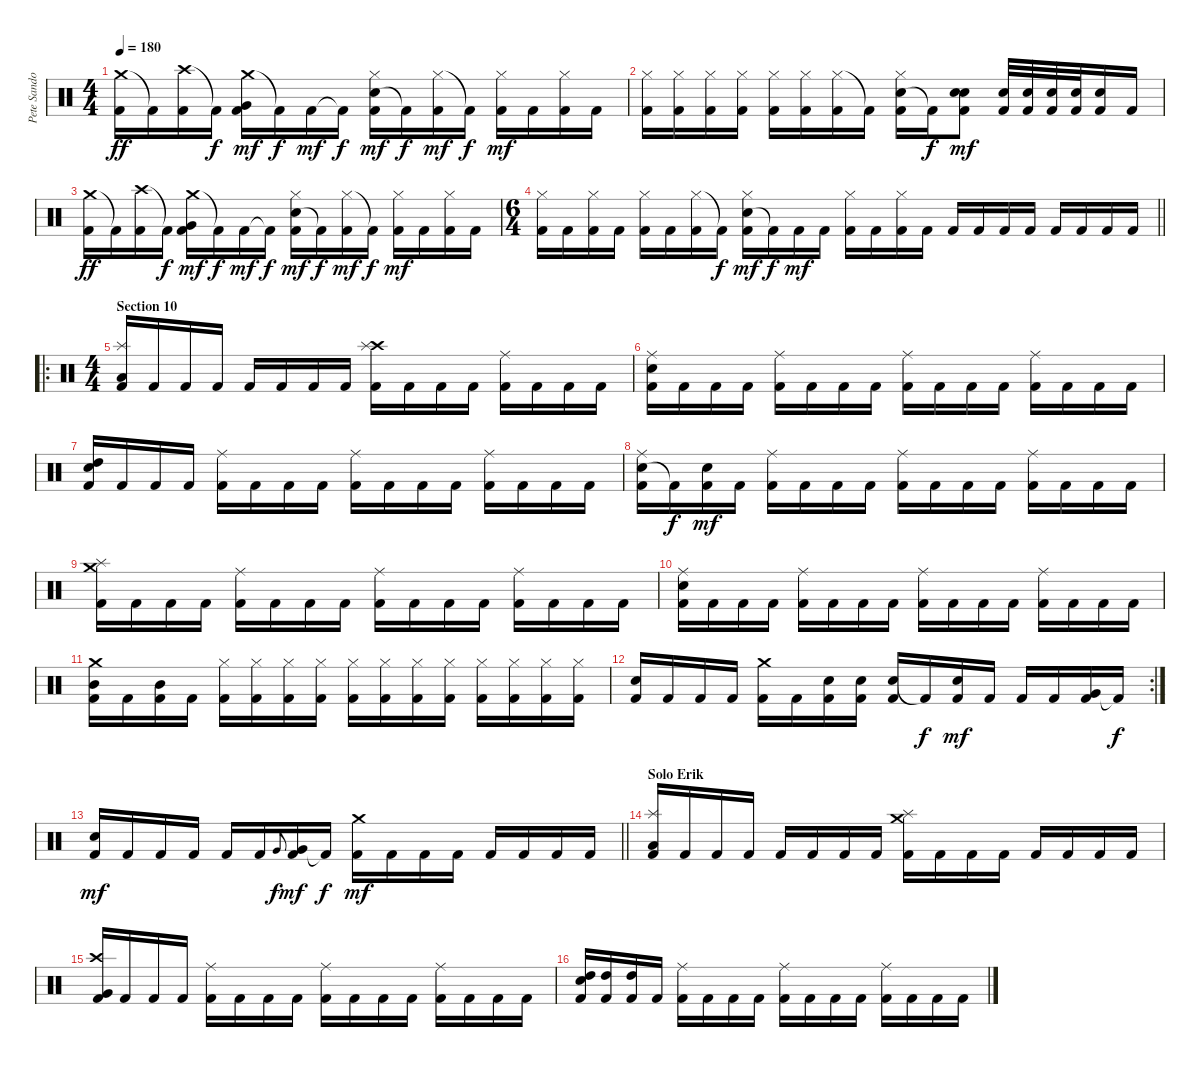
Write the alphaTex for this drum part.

\track ("Pete Sandoval" "Pete Sando") {instrument percussion}
\staff {score}
\articulation defaults
\ts (4 4)
\tempo 180
\clef neutral
\ks c
("Crash medium (hit)" "Kick (hit) 2").16{dy ff} "Kick (hit) 2"{t}.16 ("Crash high (hit)" "Kick (hit) 2").16 "Kick (hit) 2"{t}.16{dy f} ("Crash medium (hit)" "Very Low Tom (hit)" "Kick (hit) 2").16{dy mf} "Kick (hit) 2"{t}.16{dy f} "Kick (hit) 2".16{dy mf} "Kick (hit) 2"{t}.16{dy f} ("Snare (hit) 2" "Hi-Hat (closed)" "Kick (hit) 2").16{dy mf} "Kick (hit) 2"{t}.16{dy f} ("Hi-Hat (closed)" "Kick (hit) 2").16{dy mf} "Kick (hit) 2"{t}.16{dy f} ("Hi-Hat (closed)" "Kick (hit) 2").16{dy mf} "Kick (hit) 2".16 ("Hi-Hat (closed)" "Kick (hit) 2").16 "Kick (hit) 2".16 |
("Hi-Hat (closed)" "Kick (hit) 2").16 ("Hi-Hat (closed)" "Kick (hit) 2").16 ("Hi-Hat (closed)" "Kick (hit) 2").16 ("Hi-Hat (closed)" "Kick (hit) 2").16 ("Hi-Hat (closed)" "Kick (hit) 2").16 ("Hi-Hat (closed)" "Kick (hit) 2").16 ("Hi-Hat (closed)" "Kick (hit) 2").16 "Kick (hit) 2"{t}.16 ("Snare (hit) 2" "Hi-Hat (closed)" "Kick (hit) 2").16 "Kick (hit) 2"{t}.16{dy f} ("Snare (hit) 2" "Snare (hit) 2" "Kick (hit) 2").8{dy mf} ("Snare (hit) 2" "Kick (hit) 2").32 ("Snare (hit) 2" "Kick (hit) 2").32 ("Snare (hit) 2" "Kick (hit) 2").32 ("Snare (hit) 2" "Kick (hit) 2").32 ("Snare (hit) 2" "Kick (hit) 2").16 "Kick (hit) 2".16 |
("Crash medium (hit)" "Kick (hit) 2").16{dy ff} "Kick (hit) 2"{t}.16 ("Crash high (hit)" "Kick (hit) 2").16 "Kick (hit) 2"{t}.16{dy f} ("Crash medium (hit)" "Very Low Tom (hit)" "Kick (hit) 2").16{dy mf} "Kick (hit) 2"{t}.16{dy f} "Kick (hit) 2".16{dy mf} "Kick (hit) 2"{t}.16{dy f} ("Snare (hit) 2" "Hi-Hat (closed)" "Kick (hit) 2").16{dy mf} "Kick (hit) 2"{t}.16{dy f} ("Hi-Hat (closed)" "Kick (hit) 2").16{dy mf} "Kick (hit) 2"{t}.16{dy f} ("Hi-Hat (closed)" "Kick (hit) 2").16{dy mf} "Kick (hit) 2".16 ("Hi-Hat (closed)" "Kick (hit) 2").16 "Kick (hit) 2".16 |
\ts (6 4)
\barLineRight lightlight
("Hi-Hat (closed)" "Kick (hit) 2").16 "Kick (hit) 2".16 ("Hi-Hat (closed)" "Kick (hit) 2").16 "Kick (hit) 2".16 ("Hi-Hat (closed)" "Kick (hit) 2").16 "Kick (hit) 2".16 ("Hi-Hat (closed)" "Kick (hit) 2").16 "Kick (hit) 2"{t}.16{dy f} ("Snare (hit) 2" "Hi-Hat (closed)" "Kick (hit) 2").16{dy mf} "Kick (hit) 2"{t}.16{dy f} "Kick (hit) 2".16{dy mf} "Kick (hit) 2".16 ("Hi-Hat (closed)" "Kick (hit) 2").16 "Kick (hit) 2".16 ("Hi-Hat (closed)" "Kick (hit) 2").16 "Kick (hit) 2".16 "Kick (hit) 2".16 "Kick (hit) 2".16 "Kick (hit) 2".16 "Kick (hit) 2".16 "Kick (hit) 2".16 "Kick (hit) 2".16 "Kick (hit) 2".16 "Kick (hit) 2".16 |
\ro
\ts (4 4)
\section ("" "Section 10")
("Splash (hit)" "Low Floor Tom (hit)" "Kick (hit) 2").16 "Kick (hit) 2".16 "Kick (hit) 2".16 "Kick (hit) 2".16 "Kick (hit) 2".16 "Kick (hit) 2".16 "Kick (hit) 2".16 "Kick (hit) 2".16 ("Crash high (hit)" "Splash (hit)" "Kick (hit) 2").16 "Kick (hit) 2".16 "Kick (hit) 2".16 "Kick (hit) 2".16 ("Ride (middle)" "Kick (hit) 2").16 "Kick (hit) 2".16 "Kick (hit) 2".16 "Kick (hit) 2".16 |
("Snare (hit) 2" "Ride (middle)" "Kick (hit) 2").16 "Kick (hit) 2".16 "Kick (hit) 2".16 "Kick (hit) 2".16 ("Ride (middle)" "Kick (hit) 2").16 "Kick (hit) 2".16 "Kick (hit) 2".16 "Kick (hit) 2".16 ("Ride (middle)" "Kick (hit) 2").16 "Kick (hit) 2".16 "Kick (hit) 2".16 "Kick (hit) 2".16 ("Ride (middle)" "Kick (hit) 2").16 "Kick (hit) 2".16 "Kick (hit) 2".16 "Kick (hit) 2".16 |
("Snare (hit) 2" "High Tom (hit)" "Kick (hit) 2").16 "Kick (hit) 2".16 "Kick (hit) 2".16 "Kick (hit) 2".16 ("Ride (middle)" "Kick (hit) 2").16 "Kick (hit) 2".16 "Kick (hit) 2".16 "Kick (hit) 2".16 ("Ride (middle)" "Kick (hit) 2").16 "Kick (hit) 2".16 "Kick (hit) 2".16 "Kick (hit) 2".16 ("Ride (middle)" "Kick (hit) 2").16 "Kick (hit) 2".16 "Kick (hit) 2".16 "Kick (hit) 2".16 |
("Snare (hit) 2" "Ride (middle)" "Kick (hit) 2").16 "Kick (hit) 2"{t}.16{dy f} ("Snare (hit) 2" "Kick (hit) 2").16{dy mf} "Kick (hit) 2".16 ("Ride (middle)" "Kick (hit) 2").16 "Kick (hit) 2".16 "Kick (hit) 2".16 "Kick (hit) 2".16 ("Ride (middle)" "Kick (hit) 2").16 "Kick (hit) 2".16 "Kick (hit) 2".16 "Kick (hit) 2".16 ("Ride (middle)" "Kick (hit) 2").16 "Kick (hit) 2".16 "Kick (hit) 2".16 "Kick (hit) 2".16 |
("Crash medium (hit)" "Splash (hit)" "Kick (hit) 2").16 "Kick (hit) 2".16 "Kick (hit) 2".16 "Kick (hit) 2".16 ("Ride (middle)" "Kick (hit) 2").16 "Kick (hit) 2".16 "Kick (hit) 2".16 "Kick (hit) 2".16 ("Ride (middle)" "Kick (hit) 2").16 "Kick (hit) 2".16 "Kick (hit) 2".16 "Kick (hit) 2".16 ("Ride (middle)" "Kick (hit) 2").16 "Kick (hit) 2".16 "Kick (hit) 2".16 "Kick (hit) 2".16 |
("Snare (hit) 2" "Ride (middle)" "Kick (hit) 2").16 "Kick (hit) 2".16 "Kick (hit) 2".16 "Kick (hit) 2".16 ("Ride (middle)" "Kick (hit) 2").16 "Kick (hit) 2".16 "Kick (hit) 2".16 "Kick (hit) 2".16 ("Ride (middle)" "Kick (hit) 2").16 "Kick (hit) 2".16 "Kick (hit) 2".16 "Kick (hit) 2".16 ("Ride (middle)" "Kick (hit) 2").16 "Kick (hit) 2".16 "Kick (hit) 2".16 "Kick (hit) 2".16 |
("Crash medium (hit)" "Mid Tom (hit)" "Kick (hit) 2").16 "Kick (hit) 2".16 ("Mid Tom (hit)" "Kick (hit) 2").16 "Kick (hit) 2".16 ("Hi-Hat (closed)" "Kick (hit) 2").16 ("Hi-Hat (closed)" "Kick (hit) 2").16 ("Hi-Hat (closed)" "Kick (hit) 2").16 ("Hi-Hat (closed)" "Kick (hit) 2").16 ("Hi-Hat (closed)" "Kick (hit) 2").16 ("Hi-Hat (closed)" "Kick (hit) 2").16 ("Hi-Hat (closed)" "Kick (hit) 2").16 ("Hi-Hat (closed)" "Kick (hit) 2").16 ("Hi-Hat (closed)" "Kick (hit) 2").16 ("Hi-Hat (closed)" "Kick (hit) 2").16 ("Hi-Hat (closed)" "Kick (hit) 2").16 ("Hi-Hat (closed)" "Kick (hit) 2").16 |
\rc 2
("Snare (hit) 2" "Kick (hit) 2").16 "Kick (hit) 2".16 "Kick (hit) 2".16 "Kick (hit) 2".16 ("Crash medium (hit)" "Kick (hit) 2").16 "Kick (hit) 2".16 ("Snare (hit) 2" "Kick (hit) 2").16 ("Snare (hit) 2" "Kick (hit) 2").16 ("Snare (hit) 2" "Kick (hit) 2").16 "Kick (hit) 2"{t}.16{dy f} ("Snare (hit) 2" "Kick (hit) 2").16{dy mf} "Kick (hit) 2".16 "Kick (hit) 2".16 "Kick (hit) 2".16 ("Very Low Tom (hit)" "Kick (hit) 2").16 "Kick (hit) 2"{t}.16{dy f} |
\barLineRight lightlight
("Snare (hit) 2" "Kick (hit) 2").16{dy mf} "Kick (hit) 2".16 "Kick (hit) 2".16 "Kick (hit) 2".16 "Kick (hit) 2".16 "Kick (hit) 2".16 "Very Low Tom (hit)".8{gr onbeat dy f} ("Very Low Tom (hit)" "Kick (hit) 2").16{dy mf} "Kick (hit) 2"{t}.16{dy f} ("Crash medium (hit)" "Kick (hit) 2").16{dy mf} "Kick (hit) 2".16 "Kick (hit) 2".16 "Kick (hit) 2".16 "Kick (hit) 2".16 "Kick (hit) 2".16 "Kick (hit) 2".16 "Kick (hit) 2".16 |
\section ("" "Solo Erik")
("Splash (hit)" "Low Floor Tom (hit)" "Kick (hit) 2").16 "Kick (hit) 2".16 "Kick (hit) 2".16 "Kick (hit) 2".16 "Kick (hit) 2".16 "Kick (hit) 2".16 "Kick (hit) 2".16 "Kick (hit) 2".16 ("Crash medium (hit)" "Splash (hit)" "Kick (hit) 2").16 "Kick (hit) 2".16 "Kick (hit) 2".16 "Kick (hit) 2".16 "Kick (hit) 2".16 "Kick (hit) 2".16 "Kick (hit) 2".16 "Kick (hit) 2".16 |
("Crash high (hit)" "Very Low Tom (hit)" "Kick (hit) 2").16 "Kick (hit) 2".16 "Kick (hit) 2".16 "Kick (hit) 2".16 ("Ride (middle)" "Kick (hit) 2").16 "Kick (hit) 2".16 "Kick (hit) 2".16 "Kick (hit) 2".16 ("Ride (middle)" "Kick (hit) 2").16 "Kick (hit) 2".16 "Kick (hit) 2".16 "Kick (hit) 2".16 ("Ride (middle)" "Kick (hit) 2").16 "Kick (hit) 2".16 "Kick (hit) 2".16 "Kick (hit) 2".16 |
("Snare (hit) 2" "High Tom (hit)" "Kick (hit) 2").16 ("High Tom (hit)" "Kick (hit) 2").16 ("High Tom (hit)" "Kick (hit) 2").16 "Kick (hit) 2".16 ("Ride (middle)" "Kick (hit) 2").16 "Kick (hit) 2".16 "Kick (hit) 2".16 "Kick (hit) 2".16 ("Ride (middle)" "Kick (hit) 2").16 "Kick (hit) 2".16 "Kick (hit) 2".16 "Kick (hit) 2".16 ("Ride (middle)" "Kick (hit) 2").16 "Kick (hit) 2".16 "Kick (hit) 2".16 "Kick (hit) 2".16
